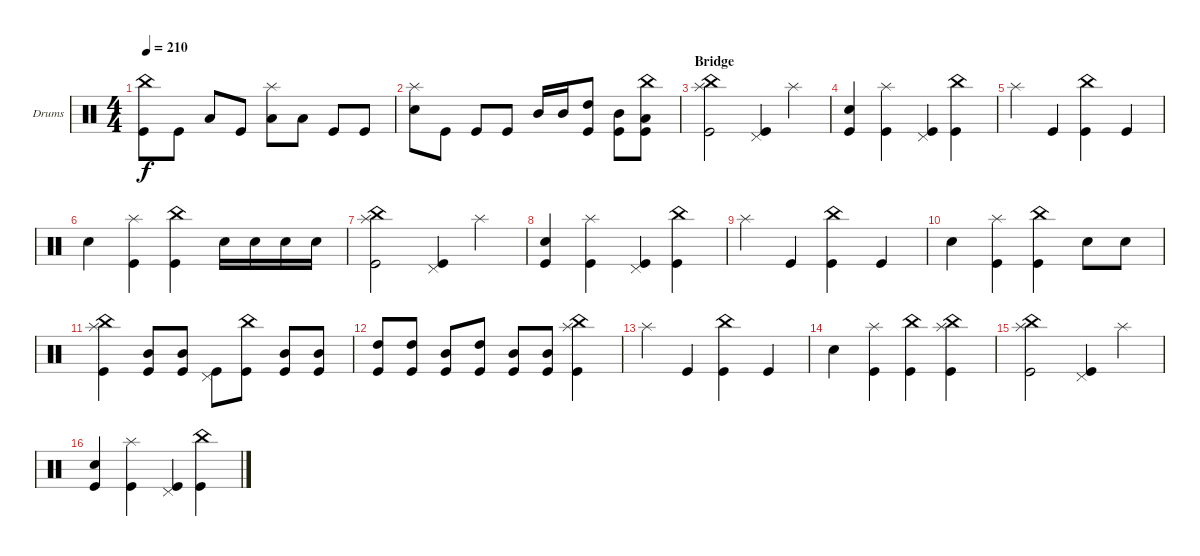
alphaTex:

\defaultSystemsLayout 4
\bracketExtendMode groupsimilarinstruments
\firstSystemTrackNameOrientation horizontal
\otherSystemsTrackNameOrientation horizontal
\track ("Drumkit" "Drums") {instrument percussion}
\staff {score}
\articulation defaults
\ts (4 4)
\tempo 210
\clef neutral
\ks c
("China (hit)" "Kick (hit)").8{dy f} "Kick (hit)".8 "Low Tom (hit)".8 "Kick (hit)".8 ("Splash (hit)" "Low Tom (hit)").8 "Low Tom (hit)".8 "Kick (hit)".8 "Kick (hit)".8 |
("Splash (hit)" "Snare (hit) 2").8 "Kick (hit)".8 "Kick (hit)".8 "Kick (hit)".8 "Mid Tom (hit)".16 "Mid Tom (hit)".16 ("Kick (hit)" "High Tom (hit)").8 ("Kick (hit)" "Mid Tom (hit)").8 ("Kick (hit)" "Low Tom (hit)" "China (hit)").8 |
\section ("" "Bridge")
("Splash (hit)" "China (hit)" "Kick (hit)").2 ("Kick (hit)" "Pedal Hi-Hat (hit)").4 "Splash (hit)".4 |
("Kick (hit)" "Snare (hit) 2").4 ("Kick (hit)" "Splash (hit)").4 ("Kick (hit)" "Pedal Hi-Hat (hit)").4 ("Kick (hit)" "China (hit)").4 |
"Splash (hit)".4 "Kick (hit)".4 ("Kick (hit)" "China (hit)").4 "Kick (hit)".4 |
"Snare (hit) 2".4 ("Kick (hit)" "Splash (hit)").4 ("Kick (hit)" "China (hit)").4 "Snare (hit) 2".16 "Snare (hit) 2".16 "Snare (hit) 2".16 "Snare (hit) 2".16 |
("Splash (hit)" "China (hit)" "Kick (hit)").2 ("Kick (hit)" "Pedal Hi-Hat (hit)").4 "Splash (hit)".4 |
("Kick (hit)" "Snare (hit) 2").4 ("Kick (hit)" "Splash (hit)").4 ("Kick (hit)" "Pedal Hi-Hat (hit)").4 ("Kick (hit)" "China (hit)").4 |
"Splash (hit)".4 "Kick (hit)".4 ("Kick (hit)" "China (hit)").4 "Kick (hit)".4 |
"Snare (hit) 2".4 ("Kick (hit)" "Splash (hit)").4 ("Kick (hit)" "China (hit)").4 "Snare (hit) 2".8 "Snare (hit) 2".8 |
("Kick (hit)" "China (hit)" "Splash (hit)").4 ("Kick (hit)" "Mid Tom (hit)").8 ("Kick (hit)" "Mid Tom (hit)").8 ("Kick (hit)" "Pedal Hi-Hat (hit)").8 ("Kick (hit)" "China (hit)").8 ("Kick (hit)" "Mid Tom (hit)").8 ("Kick (hit)" "Mid Tom (hit)").8 |
("Kick (hit)" "High Tom (hit)").8 ("Kick (hit)" "High Tom (hit)").8 ("Kick (hit)" "Mid Tom (hit)").8 ("Kick (hit)" "High Tom (hit)").8 ("Kick (hit)" "Mid Tom (hit)").8 ("Kick (hit)" "Mid Tom (hit)").8 ("Kick (hit)" "Splash (hit)" "China (hit)").4 |
"Splash (hit)".4 "Kick (hit)".4 ("Kick (hit)" "China (hit)").4 "Kick (hit)".4 |
"Snare (hit) 2".4 ("Kick (hit)" "Splash (hit)").4 ("Kick (hit)" "China (hit)").4 ("Kick (hit)" "China (hit)" "Splash (hit)").4 |
("Splash (hit)" "China (hit)" "Kick (hit)").2 ("Kick (hit)" "Pedal Hi-Hat (hit)").4 "Splash (hit)".4 |
("Kick (hit)" "Snare (hit) 2").4 ("Kick (hit)" "Splash (hit)").4 ("Kick (hit)" "Pedal Hi-Hat (hit)").4 ("Kick (hit)" "China (hit)").4
